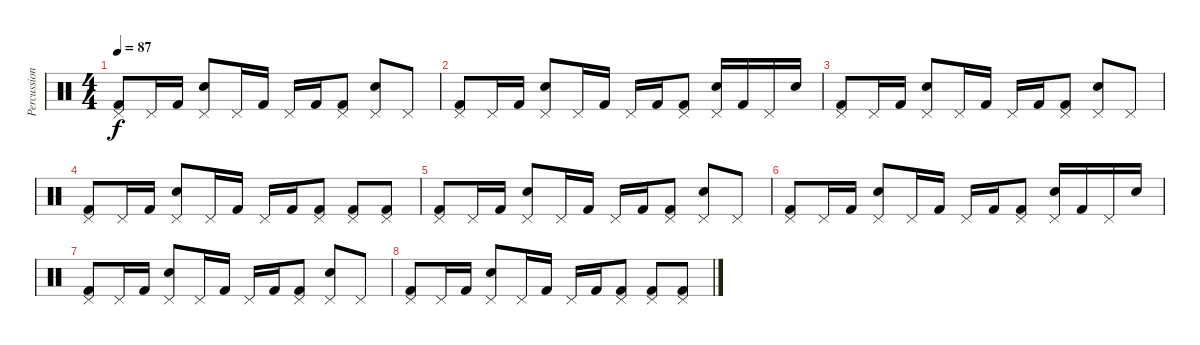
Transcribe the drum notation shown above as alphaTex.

\track ("Percussion" "Percussion") {instrument percussion}
\staff {score}
\articulation defaults
\ts (4 4)
\tempo 87
\clef neutral
\ks c
("Kick (hit) 2" "Pedal Hi-Hat (hit)").8{dy f} "Pedal Hi-Hat (hit)".16 "Kick (hit) 2".16 ("Snare (hit) 2" "Pedal Hi-Hat (hit)").8 "Pedal Hi-Hat (hit)".16 "Kick (hit) 2".16 "Pedal Hi-Hat (hit)".16 "Kick (hit) 2".16 ("Kick (hit) 2" "Pedal Hi-Hat (hit)").8 ("Snare (hit) 2" "Pedal Hi-Hat (hit)").8 "Pedal Hi-Hat (hit)".8 |
("Kick (hit) 2" "Pedal Hi-Hat (hit)").8 "Pedal Hi-Hat (hit)".16 "Kick (hit) 2".16 ("Snare (hit) 2" "Pedal Hi-Hat (hit)").8 "Pedal Hi-Hat (hit)".16 "Kick (hit) 2".16 "Pedal Hi-Hat (hit)".16 "Kick (hit) 2".16 ("Kick (hit) 2" "Pedal Hi-Hat (hit)").8 ("Snare (hit) 2" "Pedal Hi-Hat (hit)").16 "Kick (hit) 2".16 "Pedal Hi-Hat (hit)".16 "Snare (hit) 2".16 |
("Kick (hit) 2" "Pedal Hi-Hat (hit)").8 "Pedal Hi-Hat (hit)".16 "Kick (hit) 2".16 ("Snare (hit) 2" "Pedal Hi-Hat (hit)").8 "Pedal Hi-Hat (hit)".16 "Kick (hit) 2".16 "Pedal Hi-Hat (hit)".16 "Kick (hit) 2".16 ("Kick (hit) 2" "Pedal Hi-Hat (hit)").8 ("Snare (hit) 2" "Pedal Hi-Hat (hit)").8 "Pedal Hi-Hat (hit)".8 |
("Kick (hit) 2" "Pedal Hi-Hat (hit)").8 "Pedal Hi-Hat (hit)".16 "Kick (hit) 2".16 ("Snare (hit) 2" "Pedal Hi-Hat (hit)").8 "Pedal Hi-Hat (hit)".16 "Kick (hit) 2".16 "Pedal Hi-Hat (hit)".16 "Kick (hit) 2".16 ("Kick (hit) 2" "Pedal Hi-Hat (hit)").8 ("Kick (hit) 2" "Pedal Hi-Hat (hit)").8 ("Kick (hit) 2" "Pedal Hi-Hat (hit)").8 |
("Kick (hit) 2" "Pedal Hi-Hat (hit)").8 "Pedal Hi-Hat (hit)".16 "Kick (hit) 2".16 ("Snare (hit) 2" "Pedal Hi-Hat (hit)").8 "Pedal Hi-Hat (hit)".16 "Kick (hit) 2".16 "Pedal Hi-Hat (hit)".16 "Kick (hit) 2".16 ("Kick (hit) 2" "Pedal Hi-Hat (hit)").8 ("Snare (hit) 2" "Pedal Hi-Hat (hit)").8 "Pedal Hi-Hat (hit)".8 |
("Kick (hit) 2" "Pedal Hi-Hat (hit)").8 "Pedal Hi-Hat (hit)".16 "Kick (hit) 2".16 ("Snare (hit) 2" "Pedal Hi-Hat (hit)").8 "Pedal Hi-Hat (hit)".16 "Kick (hit) 2".16 "Pedal Hi-Hat (hit)".16 "Kick (hit) 2".16 ("Kick (hit) 2" "Pedal Hi-Hat (hit)").8 ("Snare (hit) 2" "Pedal Hi-Hat (hit)").16 "Kick (hit) 2".16 "Pedal Hi-Hat (hit)".16 "Snare (hit) 2".16 |
("Kick (hit) 2" "Pedal Hi-Hat (hit)").8 "Pedal Hi-Hat (hit)".16 "Kick (hit) 2".16 ("Snare (hit) 2" "Pedal Hi-Hat (hit)").8 "Pedal Hi-Hat (hit)".16 "Kick (hit) 2".16 "Pedal Hi-Hat (hit)".16 "Kick (hit) 2".16 ("Kick (hit) 2" "Pedal Hi-Hat (hit)").8 ("Snare (hit) 2" "Pedal Hi-Hat (hit)").8 "Pedal Hi-Hat (hit)".8 |
("Kick (hit) 2" "Pedal Hi-Hat (hit)").8 "Pedal Hi-Hat (hit)".16 "Kick (hit) 2".16 ("Snare (hit) 2" "Pedal Hi-Hat (hit)").8 "Pedal Hi-Hat (hit)".16 "Kick (hit) 2".16 "Pedal Hi-Hat (hit)".16 "Kick (hit) 2".16 ("Kick (hit) 2" "Pedal Hi-Hat (hit)").8 ("Kick (hit) 2" "Pedal Hi-Hat (hit)").8 ("Kick (hit) 2" "Pedal Hi-Hat (hit)").8
